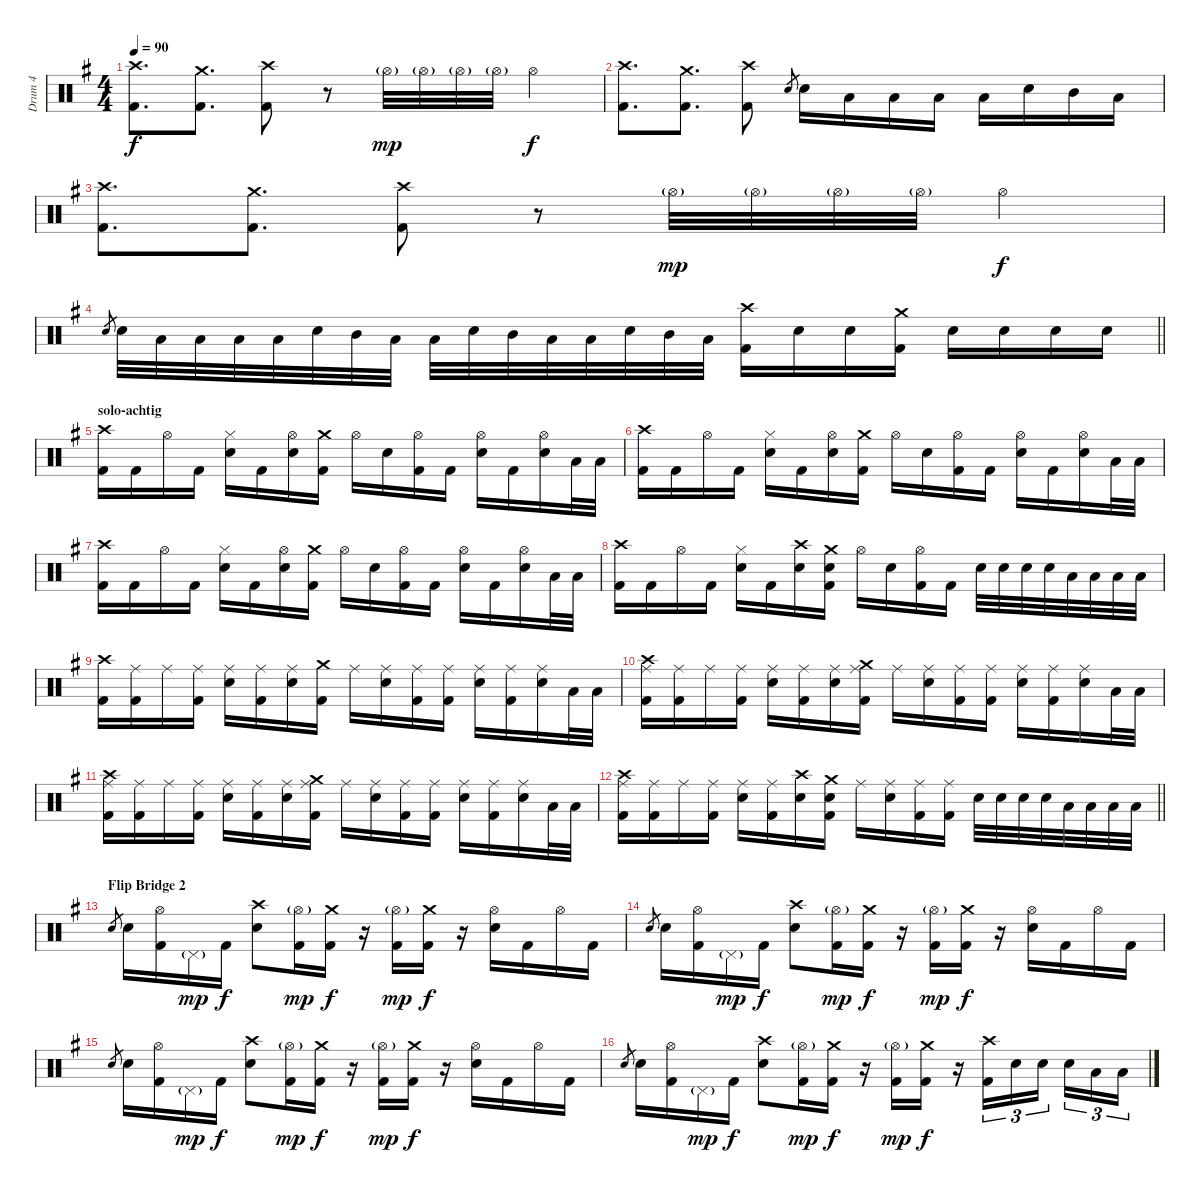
\track ("Drum 4" "Drum 4") {instrument percussion}
\staff {score}
\articulation defaults
\ts (4 4)
\tempo 90
\clef neutral
\ks eminor
("Crash high (hit)" "Kick (hit) 2").8{d dy f} ("Crash medium (hit)" "Kick (hit) 2").8{d} ("Crash high (hit)" "Kick (hit) 2").8 r.8 "Hi-Hat (open)"{g}.32{dy mp} "Hi-Hat (open)"{g}.32 "Hi-Hat (open)"{g}.32 "Hi-Hat (open)"{g}.32 "Hi-Hat (open)".4{dy f} |
("Crash high (hit)" "Kick (hit) 2").8{d} ("Crash medium (hit)" "Kick (hit) 2").8{d} ("Crash high (hit)" "Kick (hit) 2").8 "Snare (hit) 2".8{gr} "Snare (hit) 2".16 "Low Tom (hit)".16 "Low Tom (hit)".16 "Low Floor Tom (hit)".16 "Low Floor Tom (hit)".16 "Snare (hit) 2".16 "Mid Tom (hit)".16 "Low Tom (hit)".16 |
("Crash high (hit)" "Kick (hit) 2").8{d} ("Crash medium (hit)" "Kick (hit) 2").8{d} ("Crash high (hit)" "Kick (hit) 2").8 r.8 "Hi-Hat (open)"{g}.32{dy mp} "Hi-Hat (open)"{g}.32 "Hi-Hat (open)"{g}.32 "Hi-Hat (open)"{g}.32 "Hi-Hat (open)".4{dy f} |
\barLineRight lightlight "Snare (hit) 2".8{gr} "Snare (hit) 2".32 "Low Tom (hit)".32 "Low Tom (hit)".32 "Low Floor Tom (hit)".32 "Low Floor Tom (hit)".32 "Snare (hit) 2".32 "Mid Tom (hit)".32 "Low Tom (hit)".32 "Low Floor Tom (hit)".32 "Snare (hit) 2".32 "Mid Tom (hit)".32 "Low Floor Tom (hit)".32 "Low Floor Tom (hit)".32 "Snare (hit) 2".32 "Mid Tom (hit)".32 "Low Floor Tom (hit)".32
("Crash high (hit)" "Kick (hit) 2").16 "Snare (hit) 2".16 "Snare (hit) 2".16 ("Crash medium (hit)" "Kick (hit) 2").16 "Snare (hit) 2".16 "Snare (hit) 2".16 "Snare (hit) 2".16 "Snare (hit) 2".16 |
\section ("" "solo-achtig")
("Crash high (hit)" "Kick (hit) 2").16 "Kick (hit) 2".16 "Hi-Hat (open)".16 "Kick (hit) 2".16 ("Hi-Hat (closed)" "Snare (hit) 2").16 "Kick (hit) 2".16 ("Hi-Hat (open)" "Snare (hit) 2").16 ("Crash medium (hit)" "Kick (hit) 2").16 "Hi-Hat (open)".16 "Snare (hit) 2".16 ("Hi-Hat (open)" "Kick (hit) 2").16 "Kick (hit) 2".16 ("Hi-Hat (open)" "Snare (hit) 2").16 "Kick (hit) 2".16 ("Hi-Hat (open)" "Snare (hit) 2").16 "Low Tom (hit)".32 "Low Tom (hit)".32 |
("Crash high (hit)" "Kick (hit) 2").16 "Kick (hit) 2".16 "Hi-Hat (open)".16 "Kick (hit) 2".16 ("Hi-Hat (closed)" "Snare (hit) 2").16 "Kick (hit) 2".16 ("Hi-Hat (open)" "Snare (hit) 2").16 ("Crash medium (hit)" "Kick (hit) 2").16 "Hi-Hat (open)".16 "Snare (hit) 2".16 ("Hi-Hat (open)" "Kick (hit) 2").16 "Kick (hit) 2".16 ("Hi-Hat (open)" "Snare (hit) 2").16 "Kick (hit) 2".16 ("Hi-Hat (open)" "Snare (hit) 2").16 "Low Tom (hit)".32 "Low Tom (hit)".32 |
("Crash high (hit)" "Kick (hit) 2").16 "Kick (hit) 2".16 "Hi-Hat (open)".16 "Kick (hit) 2".16 ("Hi-Hat (closed)" "Snare (hit) 2").16 "Kick (hit) 2".16 ("Hi-Hat (open)" "Snare (hit) 2").16 ("Crash medium (hit)" "Kick (hit) 2").16 "Hi-Hat (open)".16 "Snare (hit) 2".16 ("Hi-Hat (open)" "Kick (hit) 2").16 "Kick (hit) 2".16 ("Hi-Hat (open)" "Snare (hit) 2").16 "Kick (hit) 2".16 ("Hi-Hat (open)" "Snare (hit) 2").16 "Low Tom (hit)".32 "Low Tom (hit)".32 |
("Crash high (hit)" "Kick (hit) 2").16 "Kick (hit) 2".16 "Hi-Hat (open)".16 "Kick (hit) 2".16 ("Hi-Hat (closed)" "Snare (hit) 2").16 "Kick (hit) 2".16 ("Crash high (hit)" "Snare (hit) 2").16 ("Crash medium (hit)" "Snare (hit) 2" "Kick (hit) 2").16 "Hi-Hat (open)".16 "Snare (hit) 2".16 ("Hi-Hat (open)" "Kick (hit) 2").16 "Kick (hit) 2".16 "Snare (hit) 2".32 "Snare (hit) 2".32 "Snare (hit) 2".32 "Snare (hit) 2".32 "Low Tom (hit)".32 "Low Tom (hit)".32 "Low Floor Tom (hit)".32 "Low Floor Tom (hit)".32 |
("Crash high (hit)" "Kick (hit) 2").16 ("Ride (middle)" "Kick (hit) 2").16 "Ride (middle)".16 ("Ride (middle)" "Kick (hit) 2").16 ("Ride (middle)" "Snare (hit) 2").16 ("Ride (middle)" "Kick (hit) 2").16 ("Ride (middle)" "Snare (hit) 2").16 ("Crash medium (hit)" "Kick (hit) 2").16 "Ride (middle)".16 ("Ride (middle)" "Snare (hit) 2").16 ("Ride (middle)" "Kick (hit) 2").16 ("Ride (middle)" "Kick (hit) 2").16 ("Ride (middle)" "Snare (hit) 2").16 ("Ride (middle)" "Kick (hit) 2").16 ("Ride (middle)" "Snare (hit) 2").16 "Low Tom (hit)".32 "Low Tom (hit)".32 |
("Crash high (hit)" "Ride (middle)" "Kick (hit) 2").16 ("Ride (middle)" "Kick (hit) 2").16 "Ride (middle)".16 ("Ride (middle)" "Kick (hit) 2").16 ("Ride (middle)" "Snare (hit) 2").16 ("Ride (middle)" "Kick (hit) 2").16 ("Ride (middle)" "Snare (hit) 2").16 ("Crash medium (hit)" "Ride (middle)" "Kick (hit) 2").16 "Ride (middle)".16 ("Ride (middle)" "Snare (hit) 2").16 ("Ride (middle)" "Kick (hit) 2").16 ("Ride (middle)" "Kick (hit) 2").16 ("Ride (middle)" "Snare (hit) 2").16 ("Ride (middle)" "Kick (hit) 2").16 ("Ride (middle)" "Snare (hit) 2").16 "Low Tom (hit)".32 "Low Tom (hit)".32 |
("Crash high (hit)" "Ride (middle)" "Kick (hit) 2").16 ("Ride (middle)" "Kick (hit) 2").16 "Ride (middle)".16 ("Ride (middle)" "Kick (hit) 2").16 ("Ride (middle)" "Snare (hit) 2").16 ("Ride (middle)" "Kick (hit) 2").16 ("Ride (middle)" "Snare (hit) 2").16 ("Crash medium (hit)" "Ride (middle)" "Kick (hit) 2").16 "Ride (middle)".16 ("Ride (middle)" "Snare (hit) 2").16 ("Ride (middle)" "Kick (hit) 2").16 ("Ride (middle)" "Kick (hit) 2").16 ("Ride (middle)" "Snare (hit) 2").16 ("Ride (middle)" "Kick (hit) 2").16 ("Ride (middle)" "Snare (hit) 2").16 "Low Tom (hit)".32 "Low Tom (hit)".32 |
\barLineRight lightlight
("Crash high (hit)" "Ride (middle)" "Kick (hit) 2").16 ("Ride (middle)" "Kick (hit) 2").16 "Ride (middle)".16 ("Ride (middle)" "Kick (hit) 2").16 ("Ride (middle)" "Snare (hit) 2").16 ("Ride (middle)" "Kick (hit) 2").16 ("Crash high (hit)" "Snare (hit) 2").16 ("Crash medium (hit)" "Snare (hit) 2" "Kick (hit) 2").16 "Ride (middle)".16 ("Ride (middle)" "Snare (hit) 2").16 ("Ride (middle)" "Kick (hit) 2").16 ("Ride (middle)" "Kick (hit) 2").16 "Snare (hit) 2".32 "Snare (hit) 2".32 "Snare (hit) 2".32 "Snare (hit) 2".32 "Low Tom (hit)".32 "Low Tom (hit)".32 "Low Floor Tom (hit)".32 "Low Floor Tom (hit)".32 |
\section ("" "Flip Bridge 2")
"Snare (hit) 2".8{gr} "Snare (hit) 2".16 ("Hi-Hat (open)" "Kick (hit) 2").16 "Pedal Hi-Hat (hit)"{g}.16{dy mp} "Kick (hit) 2".16{dy f} ("Crash high (hit)" "Snare (hit) 2").8 ("Hi-Hat (open)"{g} "Kick (hit) 2").16{dy mp} ("Crash medium (hit)" "Kick (hit) 2").16{dy f} r.16 ("Hi-Hat (open)"{g} "Kick (hit) 2").16{dy mp} ("Crash medium (hit)" "Kick (hit) 2").16{dy f} r.16 ("Hi-Hat (open)" "Snare (hit) 2").16 "Kick (hit) 2".16 "Hi-Hat (open)".16 "Kick (hit) 2".16 |
"Snare (hit) 2".8{gr} "Snare (hit) 2".16 ("Hi-Hat (open)" "Kick (hit) 2").16 "Pedal Hi-Hat (hit)"{g}.16{dy mp} "Kick (hit) 2".16{dy f} ("Crash high (hit)" "Snare (hit) 2").8 ("Hi-Hat (open)"{g} "Kick (hit) 2").16{dy mp} ("Crash medium (hit)" "Kick (hit) 2").16{dy f} r.16 ("Hi-Hat (open)"{g} "Kick (hit) 2").16{dy mp} ("Crash medium (hit)" "Kick (hit) 2").16{dy f} r.16 ("Hi-Hat (open)" "Snare (hit) 2").16 "Kick (hit) 2".16 "Hi-Hat (open)".16 "Kick (hit) 2".16 |
"Snare (hit) 2".8{gr} "Snare (hit) 2".16 ("Hi-Hat (open)" "Kick (hit) 2").16 "Pedal Hi-Hat (hit)"{g}.16{dy mp} "Kick (hit) 2".16{dy f} ("Crash high (hit)" "Snare (hit) 2").8 ("Hi-Hat (open)"{g} "Kick (hit) 2").16{dy mp} ("Crash medium (hit)" "Kick (hit) 2").16{dy f} r.16 ("Hi-Hat (open)"{g} "Kick (hit) 2").16{dy mp} ("Crash medium (hit)" "Kick (hit) 2").16{dy f} r.16 ("Hi-Hat (open)" "Snare (hit) 2").16 "Kick (hit) 2".16 "Hi-Hat (open)".16 "Kick (hit) 2".16 |
"Snare (hit) 2".8{gr} "Snare (hit) 2".16 ("Hi-Hat (open)" "Kick (hit) 2").16 "Pedal Hi-Hat (hit)"{g}.16{dy mp} "Kick (hit) 2".16{dy f} ("Crash high (hit)" "Snare (hit) 2").8 ("Hi-Hat (open)"{g} "Kick (hit) 2").16{dy mp} ("Crash medium (hit)" "Kick (hit) 2").16{dy f} r.16 ("Hi-Hat (open)"{g} "Kick (hit) 2").16{dy mp} ("Crash medium (hit)" "Kick (hit) 2").16{dy f} r.16 ("Crash high (hit)" "Kick (hit) 2").16{tu (3 2)} "Snare (hit) 2".16{tu (3 2)} "Snare (hit) 2".16{tu (3 2) beam splitsecondary} "Snare (hit) 2".16{tu (3 2)} "Low Tom (hit)".16{tu (3 2)} "Low Tom (hit)".16{tu (3 2)}
